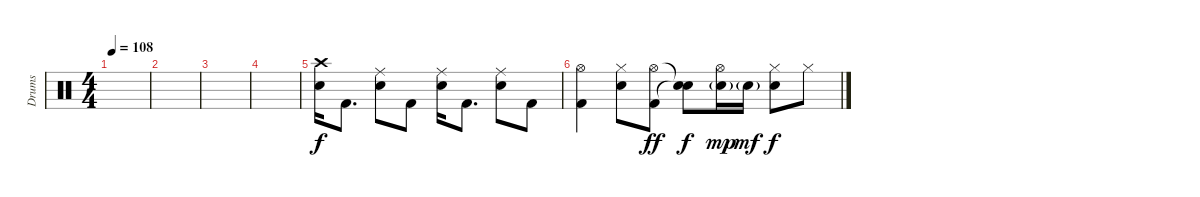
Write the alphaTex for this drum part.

\track ("Drums" "Drums") {instrument percussion}
\staff {score}
\articulation defaults
\ts (4 4)
\tempo 108
\clef neutral
\ks c
|
|
|
|
("Crash high (hit)" "Electric Snare (hit)").16 "Kick (hit) 2".8{d} ("Ride (middle)" "Electric Snare (hit)").8 "Kick (hit) 2".8 ("Ride (middle)" "Electric Snare (hit)").16 "Kick (hit) 2".8{d} ("Ride (middle)" "Electric Snare (hit)").8 "Kick (hit) 2".8 |
("Hi-Hat (open)" "Kick (hit) 2").4 ("Hi-Hat (closed)" "Electric Snare (hit)").8 ("Hi-Hat (open)" "Kick (hit) 2").8{dy ff} ("Snare (hit)"{t} "Snare (hit)"{t}).8{dy f} ("Hi-Hat (open)" "Electric Snare (hit)"{g}).16{dy mp} "Electric Snare (hit)"{g}.16{dy mf} ("Hi-Hat (closed)" "Electric Snare (hit)").8{dy f} "Hi-Hat (closed)".8
